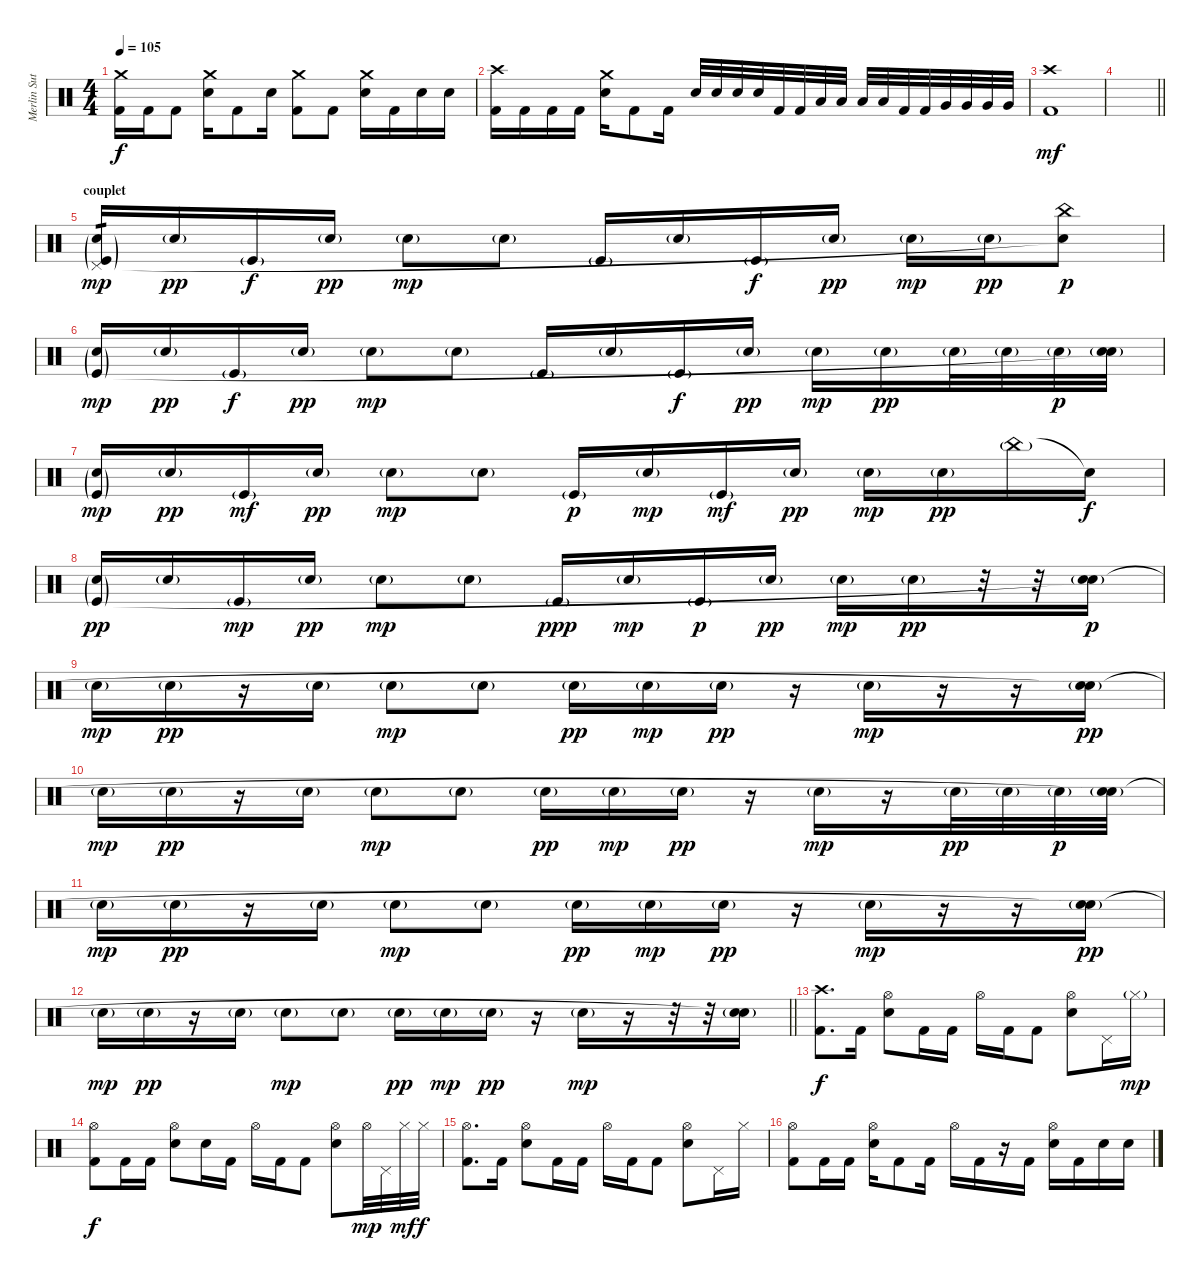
\track ("Merlin Sutter" "Merlin Sut") {instrument percussion}
\staff {score}
\articulation defaults
\ts (4 4)
\tempo 105
\clef neutral
\ks c
("Crash medium (hit)" "Kick (hit) 2").16{dy f} "Kick (hit) 2".16 "Kick (hit) 2".8 ("Crash medium (hit)" "Electric Snare (hit)").16 "Kick (hit) 2".8 "Electric Snare (hit)".16 ("Crash medium (hit)" "Kick (hit) 2").8 "Kick (hit) 2".8 ("Crash medium (hit)" "Electric Snare (hit)").16 "Kick (hit) 2".16 "Electric Snare (hit)".16 "Electric Snare (hit)".16 |
("Crash high (hit)" "Kick (hit) 2").16 "Kick (hit) 2".16 "Kick (hit) 2".16 "Kick (hit) 2".16 ("Crash medium (hit)" "Electric Snare (hit)").16 "Kick (hit) 2".8 "Kick (hit) 2".16 "Electric Snare (hit)".32 "Electric Snare (hit)".32 "Electric Snare (hit)".32 "Electric Snare (hit)".32 "Kick (hit) 2".32 "Kick (hit) 2".32 "Low Tom (hit)".32 "Low Tom (hit)".32 "Low Tom (hit)".32 "Low Tom (hit)".32 "Kick (hit) 2".32 "Kick (hit) 2".32 "Very Low Tom (hit)".32 "Very Low Tom (hit)".32 "Very Low Tom (hit)".32 "Very Low Tom (hit)".32 |
("Crash high (hit)" "Kick (hit) 2").1{dy mf volume 0} |
\barLineRight lightlight
|
\section ("" "couplet")
("Electric Snare (hit)"{g} "Pedal Hi-Hat (hit)"{g} "Kick (hit)"{g}).16{tp 1 dy mp volume 16} "Snare (hit) 2"{g}.16{dy pp} "Kick (hit)"{g}.16{dy f} "Snare (hit) 2"{g}.16{dy pp} "Electric Snare (hit)"{g}.8{dy mp} "Electric Snare (hit)"{g}.8 "Kick (hit)"{g}.16 "Electric Snare (hit)"{g}.16 "Kick (hit)"{g}.16{dy f} "Snare (hit) 2"{g}.16{dy pp} "Electric Snare (hit)"{g}.16{dy mp} "Snare (hit) 2"{g}.16{dy pp} ("China (hit)" "Snare (hit)"{t}).8{dy p} |
("Electric Snare (hit)"{g} "Kick (hit)"{g}).16{dy mp} "Snare (hit) 2"{g}.16{dy pp} "Kick (hit)"{g}.16{dy f} "Snare (hit) 2"{g}.16{dy pp} "Electric Snare (hit)"{g}.8{dy mp} "Electric Snare (hit)"{g}.8 "Kick (hit)"{g}.16 "Electric Snare (hit)"{g}.16 "Kick (hit)"{g}.16{dy f} "Snare (hit) 2"{g}.16{dy pp} "Electric Snare (hit)"{g}.16{dy mp} "Snare (hit) 2"{g}.16{dy pp} "Electric Snare (hit)"{g}.32 "Electric Snare (hit)"{g}.32 "Electric Snare (hit)"{g}.32{dy p} ("Electric Snare (hit)"{g} "Snare (hit)"{t}).32 |
("Electric Snare (hit)"{g} "Kick (hit)"{g}).16{dy mp} "Snare (hit) 2"{g}.16{dy pp} "Kick (hit)"{g}.16{dy mf} "Snare (hit) 2"{g}.16{dy pp} "Electric Snare (hit)"{g}.8{dy mp} "Electric Snare (hit)"{g}.8 "Kick (hit)"{g}.16{dy p} "Electric Snare (hit)"{g}.16{dy mp} "Kick (hit)"{g}.16{dy mf} "Snare (hit) 2"{g}.16{dy pp} "Electric Snare (hit)"{g}.16{dy mp} "Snare (hit) 2"{g}.16{dy pp} "China (hit)"{g}.16 "Snare (hit)"{t}.16{dy f} |
("Electric Snare (hit)"{g} "Kick (hit)"{g}).16{dy pp} "Snare (hit) 2"{g}.16 "Kick (hit)"{g}.16{dy mp} "Snare (hit) 2"{g}.16{dy pp} "Electric Snare (hit)"{g}.8{dy mp} "Electric Snare (hit)"{g}.8 "Kick (hit)"{g}.16{dy ppp} "Electric Snare (hit)"{g}.16{dy mp} "Kick (hit)"{g}.16{dy p} "Snare (hit) 2"{g}.16{dy pp} "Electric Snare (hit)"{g}.16{dy mp} "Snare (hit) 2"{g}.16{dy pp} r.32 r.32 ("Snare (hit) 2"{g} "Snare (hit)"{t}).16{dy p} |
"Electric Snare (hit)"{g}.16{dy mp} "Snare (hit) 2"{g}.16{dy pp} r.16 "Snare (hit) 2"{g}.16 "Electric Snare (hit)"{g}.8{dy mp} "Electric Snare (hit)"{g}.8 "Snare (hit) 2"{g}.16{dy pp} "Electric Snare (hit)"{g}.16{dy mp} "Snare (hit) 2"{g}.16{dy pp} r.16 "Electric Snare (hit)"{g}.16{dy mp} r.16 r.16 ("Snare (hit) 2"{g} "Snare (hit)"{t}).16{dy pp} |
"Electric Snare (hit)"{g}.16{dy mp} "Snare (hit) 2"{g}.16{dy pp} r.16 "Snare (hit) 2"{g}.16 "Electric Snare (hit)"{g}.8{dy mp} "Electric Snare (hit)"{g}.8 "Snare (hit) 2"{g}.16{dy pp} "Electric Snare (hit)"{g}.16{dy mp} "Snare (hit) 2"{g}.16{dy pp} r.16 "Electric Snare (hit)"{g}.16{dy mp} r.16 "Electric Snare (hit)"{g}.32{dy pp} "Electric Snare (hit)"{g}.32 "Electric Snare (hit)"{g}.32{dy p} ("Electric Snare (hit)"{g} "Snare (hit)"{t}).32 |
"Electric Snare (hit)"{g}.16{dy mp} "Snare (hit) 2"{g}.16{dy pp} r.16 "Snare (hit) 2"{g}.16 "Electric Snare (hit)"{g}.8{dy mp} "Electric Snare (hit)"{g}.8 "Snare (hit) 2"{g}.16{dy pp} "Electric Snare (hit)"{g}.16{dy mp} "Snare (hit) 2"{g}.16{dy pp} r.16 "Electric Snare (hit)"{g}.16{dy mp} r.16 r.16 ("Snare (hit) 2"{g} "Snare (hit)"{t}).16{dy pp} |
\barLineRight lightlight "Electric Snare (hit)"{g}.16{dy mp} "Snare (hit) 2"{g}.16{dy pp}
r.16 "Snare (hit) 2"{g}.16 "Electric Snare (hit)"{g}.8{dy mp} "Electric Snare (hit)"{g}.8 "Snare (hit) 2"{g}.16{dy pp} "Electric Snare (hit)"{g}.16{dy mp} "Snare (hit) 2"{g}.16{dy pp} r.16 "Electric Snare (hit)"{g}.16{dy mp} r.16 r.32 r.32 ("Electric Snare (hit)"{g} "Snare (hit)"{t}).16 |
("Crash high (hit)" "Kick (hit) 2").8{d dy f} "Kick (hit) 2".16 ("Hi-Hat (open)" "Electric Snare (hit)").8 "Kick (hit) 2".16 "Kick (hit) 2".16 "Hi-Hat (open)".16 "Kick (hit) 2".16 "Kick (hit) 2".8 ("Hi-Hat (open)" "Electric Snare (hit)").8 "Pedal Hi-Hat (hit)".16 "Hi-Hat (closed)"{g}.16{dy mp} |
("Hi-Hat (open)" "Kick (hit) 2").8{dy f} "Kick (hit) 2".16 "Kick (hit) 2".16 ("Hi-Hat (open)" "Electric Snare (hit)").8 "Electric Snare (hit)".16 "Kick (hit) 2".16 "Hi-Hat (open)".16 "Kick (hit) 2".16 "Kick (hit) 2".8 ("Hi-Hat (open)" "Electric Snare (hit)").8 "Hi-Hat (open)".32{dy mp} "Pedal Hi-Hat (hit)".32 "Hi-Hat (closed)".32{dy mf} "Hi-Hat (closed)".32{dy f} |
("Hi-Hat (open)" "Kick (hit) 2").8{d} "Kick (hit) 2".16 ("Hi-Hat (open)" "Electric Snare (hit)").8 "Kick (hit) 2".16 "Kick (hit) 2".16 "Hi-Hat (open)".16 "Kick (hit) 2".16 "Kick (hit) 2".8 ("Hi-Hat (open)" "Electric Snare (hit)").8 "Pedal Hi-Hat (hit)".16 "Hi-Hat (closed)".16 |
("Hi-Hat (open)" "Kick (hit) 2").8 "Kick (hit) 2".16 "Kick (hit) 2".16 ("Hi-Hat (open)" "Electric Snare (hit)").16 "Kick (hit) 2".8 "Kick (hit) 2".16 "Hi-Hat (open)".16 "Kick (hit) 2".16 r.16 "Kick (hit) 2".16 ("Hi-Hat (open)" "Electric Snare (hit)").16 "Kick (hit) 2".16 "Electric Snare (hit)".16 "Electric Snare (hit)".16
